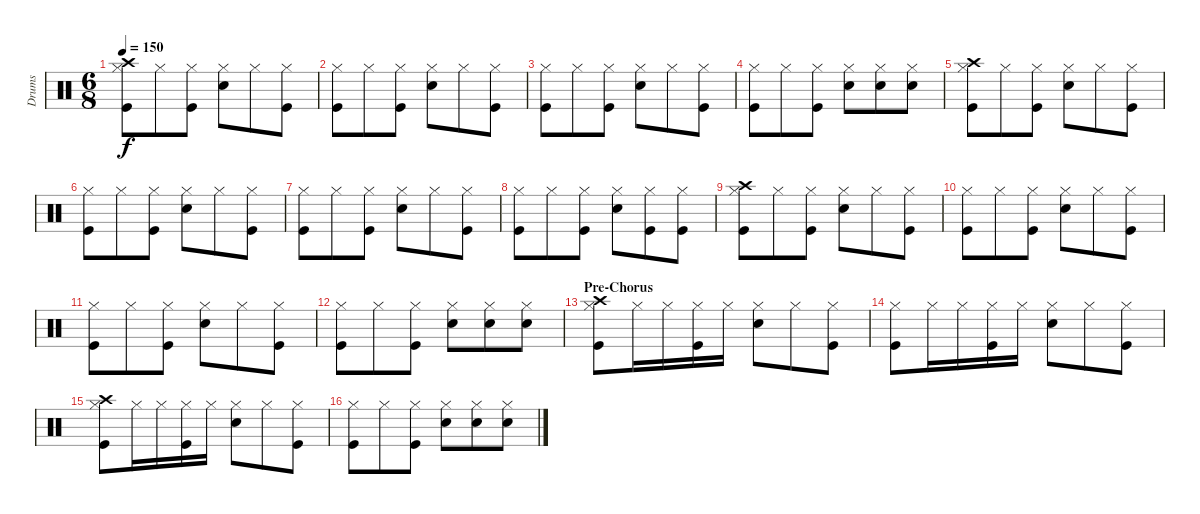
\track ("Drums" "Drums") {instrument percussion}
\staff {score}
\articulation defaults
\ts (6 8)
\tempo 150
\clef neutral
\ks c
("Hi-Hat (closed)" "Crash high (hit)" "Kick (hit)").8{dy f} "Hi-Hat (closed)".8 ("Hi-Hat (closed)" "Kick (hit)").8 ("Hi-Hat (closed)" "Snare (hit) 2").8 "Hi-Hat (closed)".8 ("Hi-Hat (closed)" "Kick (hit)").8 |
("Hi-Hat (closed)" "Kick (hit)").8 "Hi-Hat (closed)".8 ("Hi-Hat (closed)" "Kick (hit)").8 ("Hi-Hat (closed)" "Snare (hit) 2").8 "Hi-Hat (closed)".8 ("Hi-Hat (closed)" "Kick (hit)").8 |
("Hi-Hat (closed)" "Kick (hit)").8 "Hi-Hat (closed)".8 ("Hi-Hat (closed)" "Kick (hit)").8 ("Hi-Hat (closed)" "Snare (hit) 2").8 "Hi-Hat (closed)".8 ("Hi-Hat (closed)" "Kick (hit)").8 |
("Hi-Hat (closed)" "Kick (hit)").8 "Hi-Hat (closed)".8 ("Hi-Hat (closed)" "Kick (hit)").8 ("Hi-Hat (closed)" "Snare (hit) 2").8 ("Hi-Hat (closed)" "Snare (hit) 2").8 ("Hi-Hat (closed)" "Snare (hit) 2").8 |
("Hi-Hat (closed)" "Crash high (hit)" "Kick (hit)").8 "Hi-Hat (closed)".8 ("Hi-Hat (closed)" "Kick (hit)").8 ("Hi-Hat (closed)" "Snare (hit) 2").8 "Hi-Hat (closed)".8 ("Hi-Hat (closed)" "Kick (hit)").8 |
("Hi-Hat (closed)" "Kick (hit)").8 "Hi-Hat (closed)".8 ("Hi-Hat (closed)" "Kick (hit)").8 ("Hi-Hat (closed)" "Snare (hit) 2").8 "Hi-Hat (closed)".8 ("Hi-Hat (closed)" "Kick (hit)").8 |
("Hi-Hat (closed)" "Kick (hit)").8 "Hi-Hat (closed)".8 ("Hi-Hat (closed)" "Kick (hit)").8 ("Hi-Hat (closed)" "Snare (hit) 2").8 "Hi-Hat (closed)".8 ("Hi-Hat (closed)" "Kick (hit)").8 |
("Hi-Hat (closed)" "Kick (hit)").8 "Hi-Hat (closed)".8 ("Hi-Hat (closed)" "Kick (hit)").8 ("Hi-Hat (closed)" "Snare (hit) 2").8 ("Hi-Hat (closed)" "Kick (hit)").8 ("Hi-Hat (closed)" "Kick (hit)").8 |
("Hi-Hat (closed)" "Crash high (hit)" "Kick (hit)").8 "Hi-Hat (closed)".8 ("Hi-Hat (closed)" "Kick (hit)").8 ("Hi-Hat (closed)" "Snare (hit) 2").8 "Hi-Hat (closed)".8 ("Hi-Hat (closed)" "Kick (hit)").8 |
("Hi-Hat (closed)" "Kick (hit)").8 "Hi-Hat (closed)".8 ("Hi-Hat (closed)" "Kick (hit)").8 ("Hi-Hat (closed)" "Snare (hit) 2").8 "Hi-Hat (closed)".8 ("Hi-Hat (closed)" "Kick (hit)").8 |
("Hi-Hat (closed)" "Kick (hit)").8 "Hi-Hat (closed)".8 ("Hi-Hat (closed)" "Kick (hit)").8 ("Hi-Hat (closed)" "Snare (hit) 2").8 "Hi-Hat (closed)".8 ("Hi-Hat (closed)" "Kick (hit)").8 |
("Hi-Hat (closed)" "Kick (hit)").8 "Hi-Hat (closed)".8 ("Hi-Hat (closed)" "Kick (hit)").8 ("Hi-Hat (closed)" "Snare (hit) 2").8 ("Hi-Hat (closed)" "Snare (hit) 2").8 ("Hi-Hat (closed)" "Snare (hit) 2").8 |
\section ("" "Pre-Chorus")
("Hi-Hat (closed)" "Crash high (hit)" "Kick (hit)").8 "Hi-Hat (closed)".16 "Hi-Hat (closed)".16 ("Hi-Hat (closed)" "Kick (hit)").16 "Hi-Hat (closed)".16 ("Hi-Hat (closed)" "Snare (hit) 2").8 "Hi-Hat (closed)".8 ("Hi-Hat (closed)" "Kick (hit)").8 |
("Hi-Hat (closed)" "Kick (hit)").8 "Hi-Hat (closed)".16 "Hi-Hat (closed)".16 ("Hi-Hat (closed)" "Kick (hit)").16 "Hi-Hat (closed)".16 ("Hi-Hat (closed)" "Snare (hit) 2").8 "Hi-Hat (closed)".8 ("Hi-Hat (closed)" "Kick (hit)").8 |
("Hi-Hat (closed)" "Crash high (hit)" "Kick (hit)").8 "Hi-Hat (closed)".16 "Hi-Hat (closed)".16 ("Hi-Hat (closed)" "Kick (hit)").16 "Hi-Hat (closed)".16 ("Hi-Hat (closed)" "Snare (hit) 2").8 "Hi-Hat (closed)".8 ("Hi-Hat (closed)" "Kick (hit)").8 |
("Hi-Hat (closed)" "Kick (hit)").8 "Hi-Hat (closed)".8 ("Hi-Hat (closed)" "Kick (hit)").8 ("Hi-Hat (closed)" "Snare (hit) 2").8 ("Hi-Hat (closed)" "Snare (hit) 2").8 ("Hi-Hat (closed)" "Snare (hit) 2").8
